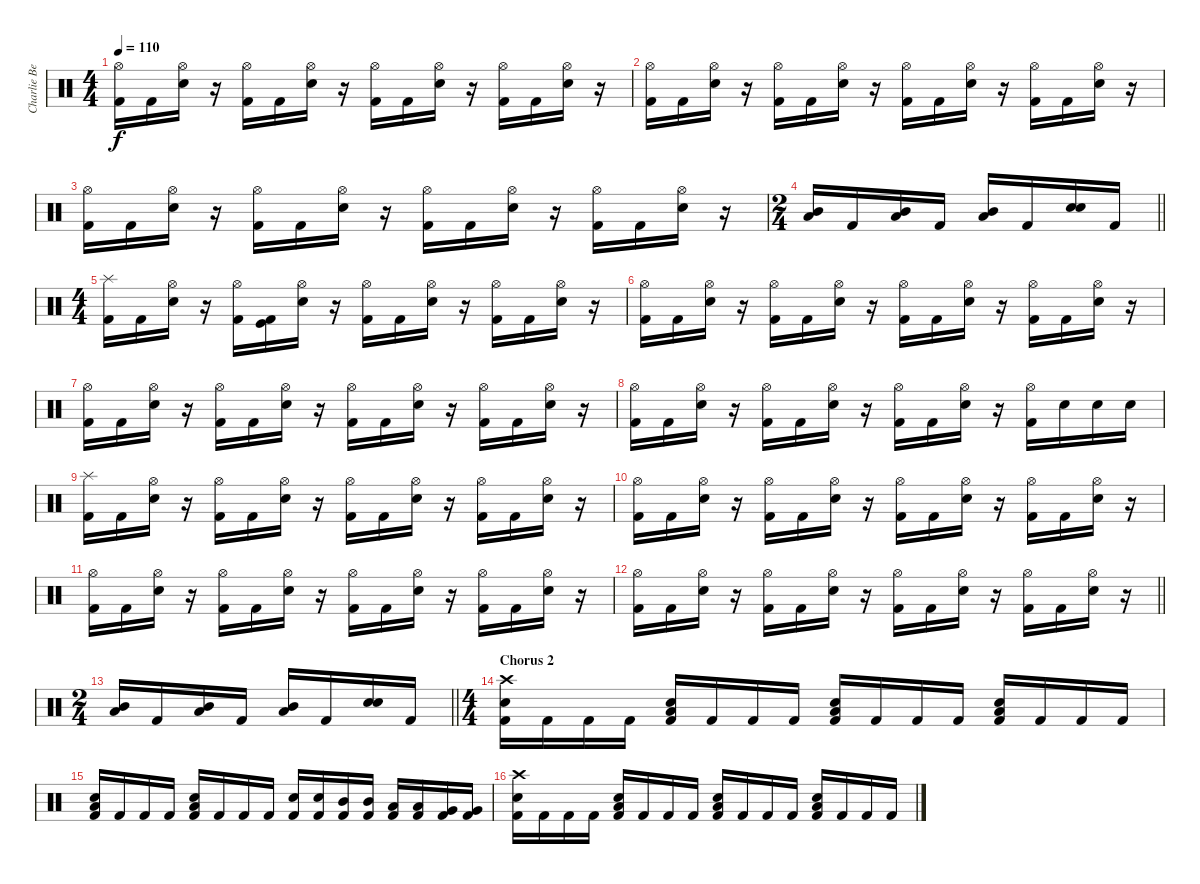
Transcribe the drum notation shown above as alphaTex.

\track ("Charlie Benante" "Charlie Be") {instrument percussion}
\staff {score}
\articulation defaults
\ts (4 4)
\tempo 110
\clef neutral
\ks c
("Hi-Hat (open)" "Kick (hit) 2").16{dy f} "Kick (hit) 2".16 ("Hi-Hat (open)" "Electric Snare (hit)").16 r.16 ("Hi-Hat (open)" "Kick (hit) 2").16 "Kick (hit) 2".16 ("Hi-Hat (open)" "Electric Snare (hit)").16 r.16 ("Hi-Hat (open)" "Kick (hit) 2").16 "Kick (hit) 2".16 ("Hi-Hat (open)" "Electric Snare (hit)").16 r.16 ("Hi-Hat (open)" "Kick (hit) 2").16 "Kick (hit) 2".16 ("Hi-Hat (open)" "Electric Snare (hit)").16 r.16 |
("Hi-Hat (open)" "Kick (hit) 2").16 "Kick (hit) 2".16 ("Hi-Hat (open)" "Electric Snare (hit)").16 r.16 ("Hi-Hat (open)" "Kick (hit) 2").16 "Kick (hit) 2".16 ("Hi-Hat (open)" "Electric Snare (hit)").16 r.16 ("Hi-Hat (open)" "Kick (hit) 2").16 "Kick (hit) 2".16 ("Hi-Hat (open)" "Electric Snare (hit)").16 r.16 ("Hi-Hat (open)" "Kick (hit) 2").16 "Kick (hit) 2".16 ("Hi-Hat (open)" "Electric Snare (hit)").16 r.16 |
("Hi-Hat (open)" "Kick (hit) 2").16 "Kick (hit) 2".16 ("Hi-Hat (open)" "Electric Snare (hit)").16 r.16 ("Hi-Hat (open)" "Kick (hit) 2").16 "Kick (hit) 2".16 ("Hi-Hat (open)" "Electric Snare (hit)").16 r.16 ("Hi-Hat (open)" "Kick (hit) 2").16 "Kick (hit) 2".16 ("Hi-Hat (open)" "Electric Snare (hit)").16 r.16 ("Hi-Hat (open)" "Kick (hit) 2").16 "Kick (hit) 2".16 ("Hi-Hat (open)" "Electric Snare (hit)").16 r.16 |
\ts (2 4)
\barLineRight lightlight
("Low Tom (hit)" "Mid Tom (hit)").16 "Kick (hit) 2".16 ("Low Tom (hit)" "Mid Tom (hit)").16 "Kick (hit) 2".16 ("Low Tom (hit)" "Mid Tom (hit)").16 "Kick (hit) 2".16 ("Snare (hit) 2" "Electric Snare (hit)").16 "Kick (hit) 2".16 |
\ts (4 4)
("Splash (hit)" "Kick (hit) 2").16 "Kick (hit) 2".16 ("Hi-Hat (open)" "Electric Snare (hit)").16 r.16 ("Hi-Hat (open)" "Kick (hit) 2").16 ("Kick (hit)" "Kick (hit) 2").16 ("Hi-Hat (open)" "Electric Snare (hit)").16 r.16 ("Hi-Hat (open)" "Kick (hit) 2").16 "Kick (hit) 2".16 ("Hi-Hat (open)" "Electric Snare (hit)").16 r.16 ("Hi-Hat (open)" "Kick (hit) 2").16 "Kick (hit) 2".16 ("Hi-Hat (open)" "Electric Snare (hit)").16 r.16 |
("Hi-Hat (open)" "Kick (hit) 2").16 "Kick (hit) 2".16 ("Hi-Hat (open)" "Electric Snare (hit)").16 r.16 ("Hi-Hat (open)" "Kick (hit) 2").16 "Kick (hit) 2".16 ("Hi-Hat (open)" "Electric Snare (hit)").16 r.16 ("Hi-Hat (open)" "Kick (hit) 2").16 "Kick (hit) 2".16 ("Hi-Hat (open)" "Electric Snare (hit)").16 r.16 ("Hi-Hat (open)" "Kick (hit) 2").16 "Kick (hit) 2".16 ("Hi-Hat (open)" "Electric Snare (hit)").16 r.16 |
("Hi-Hat (open)" "Kick (hit) 2").16 "Kick (hit) 2".16 ("Hi-Hat (open)" "Electric Snare (hit)").16 r.16 ("Hi-Hat (open)" "Kick (hit) 2").16 "Kick (hit) 2".16 ("Hi-Hat (open)" "Electric Snare (hit)").16 r.16 ("Hi-Hat (open)" "Kick (hit) 2").16 "Kick (hit) 2".16 ("Hi-Hat (open)" "Electric Snare (hit)").16 r.16 ("Hi-Hat (open)" "Kick (hit) 2").16 "Kick (hit) 2".16 ("Hi-Hat (open)" "Electric Snare (hit)").16 r.16 |
("Hi-Hat (open)" "Kick (hit) 2").16 "Kick (hit) 2".16 ("Hi-Hat (open)" "Electric Snare (hit)").16 r.16 ("Hi-Hat (open)" "Kick (hit) 2").16 "Kick (hit) 2".16 ("Hi-Hat (open)" "Electric Snare (hit)").16 r.16 ("Hi-Hat (open)" "Kick (hit) 2").16 "Kick (hit) 2".16 ("Hi-Hat (open)" "Electric Snare (hit)").16 r.16 ("Hi-Hat (open)" "Kick (hit) 2").16 "Electric Snare (hit)".16 "Snare (hit) 2".16 "Electric Snare (hit)".16 |
("Splash (hit)" "Kick (hit) 2").16 "Kick (hit) 2".16 ("Hi-Hat (open)" "Electric Snare (hit)").16 r.16 ("Hi-Hat (open)" "Kick (hit) 2").16 "Kick (hit) 2".16 ("Hi-Hat (open)" "Electric Snare (hit)").16 r.16 ("Hi-Hat (open)" "Kick (hit) 2").16 "Kick (hit) 2".16 ("Hi-Hat (open)" "Electric Snare (hit)").16 r.16 ("Hi-Hat (open)" "Kick (hit) 2").16 "Kick (hit) 2".16 ("Hi-Hat (open)" "Electric Snare (hit)").16 r.16 |
("Hi-Hat (open)" "Kick (hit) 2").16 "Kick (hit) 2".16 ("Hi-Hat (open)" "Electric Snare (hit)").16 r.16 ("Hi-Hat (open)" "Kick (hit) 2").16 "Kick (hit) 2".16 ("Hi-Hat (open)" "Electric Snare (hit)").16 r.16 ("Hi-Hat (open)" "Kick (hit) 2").16 "Kick (hit) 2".16 ("Hi-Hat (open)" "Electric Snare (hit)").16 r.16 ("Hi-Hat (open)" "Kick (hit) 2").16 "Kick (hit) 2".16 ("Hi-Hat (open)" "Electric Snare (hit)").16 r.16 |
("Hi-Hat (open)" "Kick (hit) 2").16 "Kick (hit) 2".16 ("Hi-Hat (open)" "Electric Snare (hit)").16 r.16 ("Hi-Hat (open)" "Kick (hit) 2").16 "Kick (hit) 2".16 ("Hi-Hat (open)" "Electric Snare (hit)").16 r.16 ("Hi-Hat (open)" "Kick (hit) 2").16 "Kick (hit) 2".16 ("Hi-Hat (open)" "Electric Snare (hit)").16 r.16 ("Hi-Hat (open)" "Kick (hit) 2").16 "Kick (hit) 2".16 ("Hi-Hat (open)" "Electric Snare (hit)").16 r.16 |
\barLineRight lightlight
("Hi-Hat (open)" "Kick (hit) 2").16 "Kick (hit) 2".16 ("Hi-Hat (open)" "Electric Snare (hit)").16 r.16 ("Hi-Hat (open)" "Kick (hit) 2").16 "Kick (hit) 2".16 ("Hi-Hat (open)" "Electric Snare (hit)").16 r.16 ("Hi-Hat (open)" "Kick (hit) 2").16 "Kick (hit) 2".16 ("Hi-Hat (open)" "Electric Snare (hit)").16 r.16 ("Hi-Hat (open)" "Kick (hit) 2").16 "Kick (hit) 2".16 ("Hi-Hat (open)" "Electric Snare (hit)").16 r.16 |
\ts (2 4)
\barLineRight lightlight
("Low Tom (hit)" "Mid Tom (hit)").16 "Kick (hit) 2".16 ("Low Tom (hit)" "Mid Tom (hit)").16 "Kick (hit) 2".16 ("Low Tom (hit)" "Mid Tom (hit)").16 "Kick (hit) 2".16 ("Snare (hit) 2" "Electric Snare (hit)").16 "Kick (hit) 2".16 |
\ts (4 4)
\section ("" "Chorus 2")
("Crash high (hit)" "Electric Snare (hit)" "Kick (hit) 2").16 "Kick (hit) 2".16 "Kick (hit) 2".16 "Kick (hit) 2".16 ("Low Floor Tom (hit)" "Electric Snare (hit)" "Kick (hit) 2").16 "Kick (hit) 2".16 "Kick (hit) 2".16 "Kick (hit) 2".16 ("Low Floor Tom (hit)" "Electric Snare (hit)" "Kick (hit) 2").16 "Kick (hit) 2".16 "Kick (hit) 2".16 "Kick (hit) 2".16 ("Low Floor Tom (hit)" "Electric Snare (hit)" "Kick (hit) 2").16 "Kick (hit) 2".16 "Kick (hit) 2".16 "Kick (hit) 2".16 |
("Low Floor Tom (hit)" "Electric Snare (hit)" "Kick (hit) 2").16 "Kick (hit) 2".16 "Kick (hit) 2".16 "Kick (hit) 2".16 ("Low Floor Tom (hit)" "Electric Snare (hit)" "Kick (hit) 2").16 "Kick (hit) 2".16 "Kick (hit) 2".16 "Kick (hit) 2".16 ("Electric Snare (hit)" "Kick (hit) 2").16 ("Electric Snare (hit)" "Kick (hit) 2").16 ("Mid Tom (hit)" "Kick (hit) 2").16 ("Mid Tom (hit)" "Kick (hit) 2").16 ("Low Tom (hit)" "Kick (hit) 2").16 ("Low Tom (hit)" "Kick (hit) 2").16 ("Very Low Tom (hit)" "Kick (hit) 2").16 ("Very Low Tom (hit)" "Kick (hit) 2").16 |
("Crash high (hit)" "Electric Snare (hit)" "Kick (hit) 2").16 "Kick (hit) 2".16 "Kick (hit) 2".16 "Kick (hit) 2".16 ("Low Floor Tom (hit)" "Electric Snare (hit)" "Kick (hit) 2").16 "Kick (hit) 2".16 "Kick (hit) 2".16 "Kick (hit) 2".16 ("Low Floor Tom (hit)" "Electric Snare (hit)" "Kick (hit) 2").16 "Kick (hit) 2".16 "Kick (hit) 2".16 "Kick (hit) 2".16 ("Low Floor Tom (hit)" "Electric Snare (hit)" "Kick (hit) 2").16 "Kick (hit) 2".16 "Kick (hit) 2".16 "Kick (hit) 2".16
